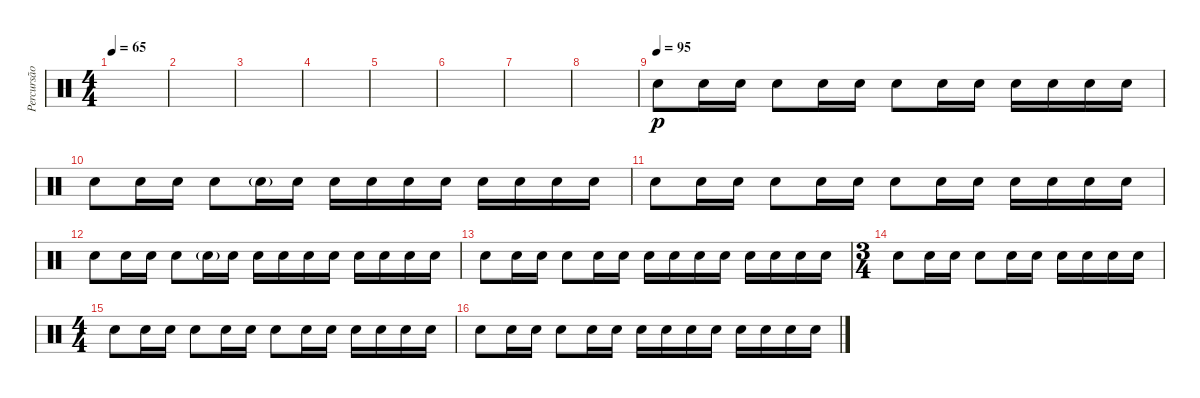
\track ("Percursão" "Percursão") {instrument percussion}
\staff {score}
\articulation defaults
\ts (4 4)
\tempo 65
\clef neutral
\ks c
|
|
|
|
|
|
|
|
\tempo (95)
"Electric Snare (hit)".8{dy p} "Electric Snare (hit)".16 "Electric Snare (hit)".16 "Electric Snare (hit)".8 "Electric Snare (hit)".16 "Electric Snare (hit)".16 "Electric Snare (hit)".8 "Electric Snare (hit)".16 "Electric Snare (hit)".16 "Electric Snare (hit)".16 "Electric Snare (hit)".16 "Electric Snare (hit)".16 "Electric Snare (hit)".16 |
"Electric Snare (hit)".8 "Electric Snare (hit)".16 "Electric Snare (hit)".16 "Electric Snare (hit)".8 "Electric Snare (hit)"{g}.16 "Electric Snare (hit)".16 "Electric Snare (hit)".16 "Electric Snare (hit)".16 "Electric Snare (hit)".16 "Electric Snare (hit)".16 "Electric Snare (hit)".16 "Electric Snare (hit)".16 "Electric Snare (hit)".16 "Electric Snare (hit)".16 |
"Electric Snare (hit)".8 "Electric Snare (hit)".16 "Electric Snare (hit)".16 "Electric Snare (hit)".8 "Electric Snare (hit)".16 "Electric Snare (hit)".16 "Electric Snare (hit)".8 "Electric Snare (hit)".16 "Electric Snare (hit)".16 "Electric Snare (hit)".16 "Electric Snare (hit)".16 "Electric Snare (hit)".16 "Electric Snare (hit)".16 |
"Electric Snare (hit)".8 "Electric Snare (hit)".16 "Electric Snare (hit)".16 "Electric Snare (hit)".8 "Electric Snare (hit)"{g}.16 "Electric Snare (hit)".16 "Electric Snare (hit)".16 "Electric Snare (hit)".16 "Electric Snare (hit)".16 "Electric Snare (hit)".16 "Electric Snare (hit)".16 "Electric Snare (hit)".16 "Electric Snare (hit)".16 "Electric Snare (hit)".16 |
"Electric Snare (hit)".8 "Electric Snare (hit)".16 "Electric Snare (hit)".16 "Electric Snare (hit)".8 "Electric Snare (hit)".16 "Electric Snare (hit)".16 "Electric Snare (hit)".16 "Electric Snare (hit)".16 "Electric Snare (hit)".16 "Electric Snare (hit)".16 "Electric Snare (hit)".16 "Electric Snare (hit)".16 "Electric Snare (hit)".16 "Electric Snare (hit)".16 |
\ts (3 4)
"Electric Snare (hit)".8 "Electric Snare (hit)".16 "Electric Snare (hit)".16 "Electric Snare (hit)".8 "Electric Snare (hit)".16 "Electric Snare (hit)".16 "Electric Snare (hit)".16 "Electric Snare (hit)".16 "Electric Snare (hit)".16 "Electric Snare (hit)".16 |
\ts (4 4)
"Electric Snare (hit)".8 "Electric Snare (hit)".16 "Electric Snare (hit)".16 "Electric Snare (hit)".8 "Electric Snare (hit)".16 "Electric Snare (hit)".16 "Electric Snare (hit)".8 "Electric Snare (hit)".16 "Electric Snare (hit)".16 "Electric Snare (hit)".16 "Electric Snare (hit)".16 "Electric Snare (hit)".16 "Electric Snare (hit)".16 |
"Electric Snare (hit)".8 "Electric Snare (hit)".16 "Electric Snare (hit)".16 "Electric Snare (hit)".8 "Electric Snare (hit)".16 "Electric Snare (hit)".16 "Electric Snare (hit)".16 "Electric Snare (hit)".16 "Electric Snare (hit)".16 "Electric Snare (hit)".16 "Electric Snare (hit)".16 "Electric Snare (hit)".16 "Electric Snare (hit)".16 "Electric Snare (hit)".16
